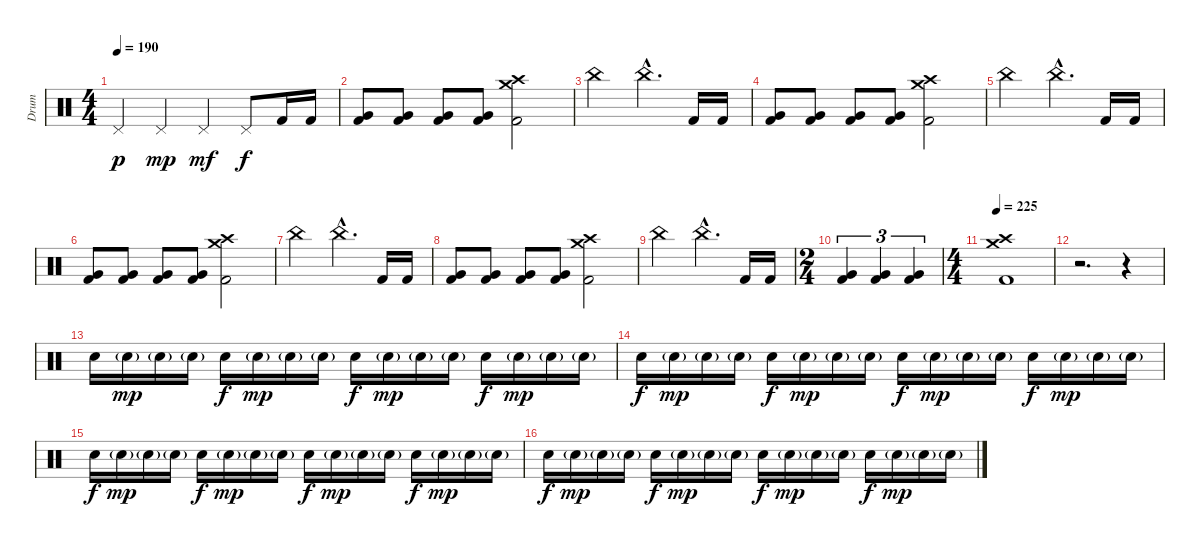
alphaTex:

\track ("Drum" "Drum") {instrument percussion}
\staff {score}
\articulation defaults
\ts (4 4)
\tempo 190
\clef neutral
\ks c "Pedal Hi-Hat (hit)".4{dy p} "Pedal Hi-Hat (hit)".4{dy mp} "Pedal Hi-Hat (hit)".4{dy mf} "Pedal Hi-Hat (hit)".8{dy f} "Kick (hit) 2".16 "Kick (hit) 2".16
|
("Very Low Tom (hit)" "Kick (hit) 2").8 ("Very Low Tom (hit)" "Kick (hit) 2").8 ("Very Low Tom (hit)" "Kick (hit) 2").8 ("Very Low Tom (hit)" "Kick (hit) 2").8 ("Crash medium (hit)" "Crash high (hit)" "Kick (hit) 2").2 |
"China (hit)".2 "China (hit)"{hac}.4{d} "Kick (hit) 2".16 "Kick (hit) 2".16 |
("Very Low Tom (hit)" "Kick (hit) 2").8 ("Very Low Tom (hit)" "Kick (hit) 2").8 ("Very Low Tom (hit)" "Kick (hit) 2").8 ("Very Low Tom (hit)" "Kick (hit) 2").8 ("Crash medium (hit)" "Crash high (hit)" "Kick (hit) 2").2 |
"China (hit)".2 "China (hit)"{hac}.4{d} "Kick (hit) 2".16 "Kick (hit) 2".16 |
("Very Low Tom (hit)" "Kick (hit) 2").8 ("Very Low Tom (hit)" "Kick (hit) 2").8 ("Very Low Tom (hit)" "Kick (hit) 2").8 ("Very Low Tom (hit)" "Kick (hit) 2").8 ("Crash medium (hit)" "Crash high (hit)" "Kick (hit) 2").2 |
"China (hit)".2 "China (hit)"{hac}.4{d} "Kick (hit) 2".16 "Kick (hit) 2".16 |
("Very Low Tom (hit)" "Kick (hit) 2").8 ("Very Low Tom (hit)" "Kick (hit) 2").8 ("Very Low Tom (hit)" "Kick (hit) 2").8 ("Very Low Tom (hit)" "Kick (hit) 2").8 ("Crash medium (hit)" "Crash high (hit)" "Kick (hit) 2").2 |
"China (hit)".2 "China (hit)"{hac}.4{d} "Kick (hit) 2".16 "Kick (hit) 2".16 |
\ts (2 4)
("Very Low Tom (hit)" "Kick (hit) 2").4{tu (3 2)} ("Very Low Tom (hit)" "Kick (hit) 2").4{tu (3 2)} ("Very Low Tom (hit)" "Kick (hit) 2").4{tu (3 2)} |
\ts (4 4)
\tempo 225
("Crash medium (hit)" "Crash high (hit)" "Kick (hit) 2").1 |
r.2{d} r.4{volume 0} |
"Electric Snare (hit)".16{volume 10} "Electric Snare (hit)"{g}.16{dy mp} "Electric Snare (hit)"{g}.16 "Electric Snare (hit)"{g}.16 "Electric Snare (hit)".16{dy f} "Electric Snare (hit)"{g}.16{dy mp} "Electric Snare (hit)"{g}.16 "Electric Snare (hit)"{g}.16 "Electric Snare (hit)".16{dy f} "Electric Snare (hit)"{g}.16{dy mp} "Electric Snare (hit)"{g}.16 "Electric Snare (hit)"{g}.16 "Electric Snare (hit)".16{dy f} "Electric Snare (hit)"{g}.16{dy mp} "Electric Snare (hit)"{g}.16 "Electric Snare (hit)"{g}.16 |
"Electric Snare (hit)".16{dy f} "Electric Snare (hit)"{g}.16{dy mp} "Electric Snare (hit)"{g}.16 "Electric Snare (hit)"{g}.16 "Electric Snare (hit)".16{dy f} "Electric Snare (hit)"{g}.16{dy mp} "Electric Snare (hit)"{g}.16 "Electric Snare (hit)"{g}.16 "Electric Snare (hit)".16{dy f} "Electric Snare (hit)"{g}.16{dy mp} "Electric Snare (hit)"{g}.16 "Electric Snare (hit)"{g}.16 "Electric Snare (hit)".16{dy f} "Electric Snare (hit)"{g}.16{dy mp} "Electric Snare (hit)"{g}.16 "Electric Snare (hit)"{g}.16 |
"Electric Snare (hit)".16{dy f} "Electric Snare (hit)"{g}.16{dy mp} "Electric Snare (hit)"{g}.16 "Electric Snare (hit)"{g}.16 "Electric Snare (hit)".16{dy f} "Electric Snare (hit)"{g}.16{dy mp} "Electric Snare (hit)"{g}.16 "Electric Snare (hit)"{g}.16 "Electric Snare (hit)".16{dy f} "Electric Snare (hit)"{g}.16{dy mp} "Electric Snare (hit)"{g}.16 "Electric Snare (hit)"{g}.16 "Electric Snare (hit)".16{dy f} "Electric Snare (hit)"{g}.16{dy mp} "Electric Snare (hit)"{g}.16 "Electric Snare (hit)"{g}.16 |
"Electric Snare (hit)".16{dy f} "Electric Snare (hit)"{g}.16{dy mp} "Electric Snare (hit)"{g}.16 "Electric Snare (hit)"{g}.16 "Electric Snare (hit)".16{dy f} "Electric Snare (hit)"{g}.16{dy mp} "Electric Snare (hit)"{g}.16 "Electric Snare (hit)"{g}.16 "Electric Snare (hit)".16{dy f} "Electric Snare (hit)"{g}.16{dy mp} "Electric Snare (hit)"{g}.16 "Electric Snare (hit)"{g}.16 "Electric Snare (hit)".16{dy f} "Electric Snare (hit)"{g}.16{dy mp} "Electric Snare (hit)"{g}.16 "Electric Snare (hit)"{g}.16
